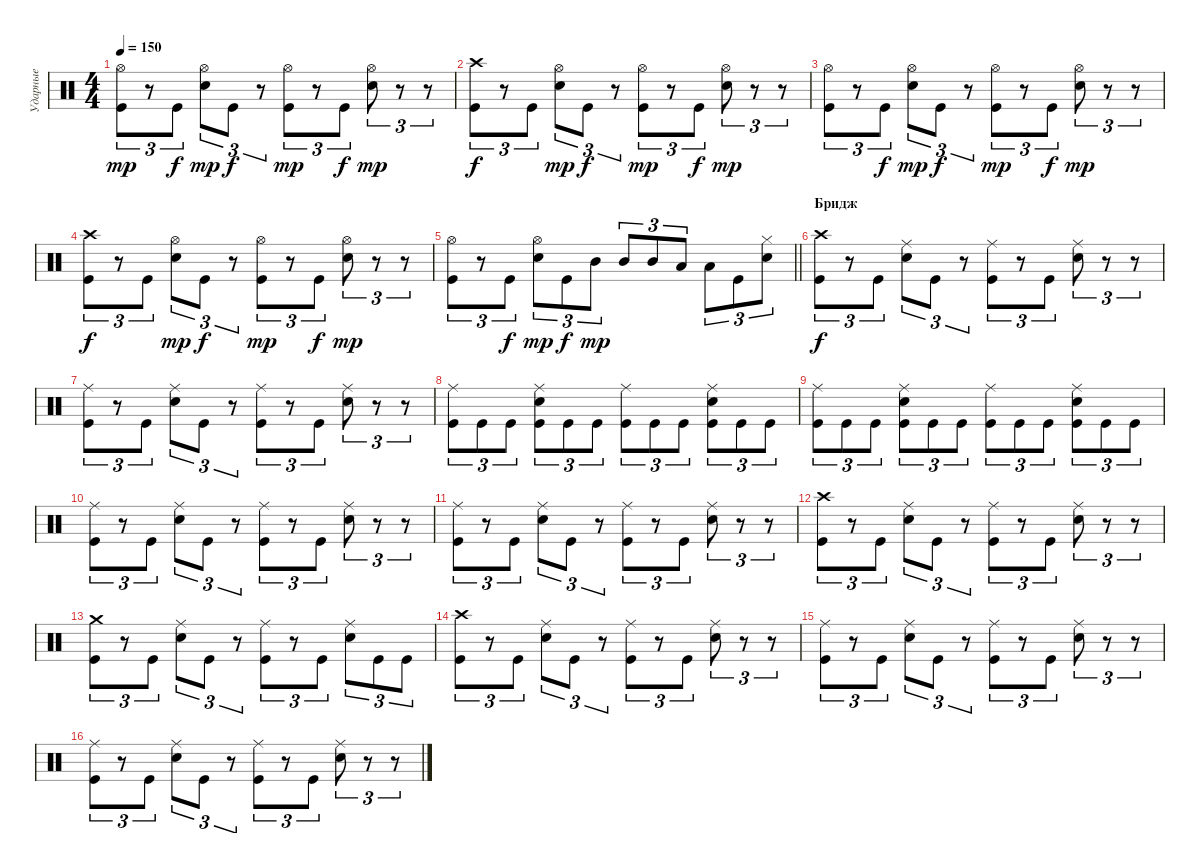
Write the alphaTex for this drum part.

\track ("Ударные" "Ударные") {instrument percussion}
\staff {score}
\articulation defaults
\ts (4 4)
\tempo 150
\clef neutral
\ks c
("Hi-Hat (open)" "Kick (hit)").8{tu (3 2) dy mp} r.8{tu (3 2)} "Kick (hit)".8{tu (3 2) dy f} ("Hi-Hat (open)" "Snare (hit) 2").8{tu (3 2) dy mp} "Kick (hit)".8{tu (3 2) dy f} r.8{tu (3 2)} ("Hi-Hat (open)" "Kick (hit)").8{tu (3 2) dy mp} r.8{tu (3 2)} "Kick (hit)".8{tu (3 2) dy f} ("Hi-Hat (open)" "Snare (hit) 2").8{tu (3 2) dy mp} r.8{tu (3 2)} r.8{tu (3 2)} |
("Crash high (hit)" "Kick (hit)").8{tu (3 2) dy f} r.8{tu (3 2)} "Kick (hit)".8{tu (3 2)} ("Hi-Hat (open)" "Snare (hit) 2").8{tu (3 2) dy mp} "Kick (hit)".8{tu (3 2) dy f} r.8{tu (3 2)} ("Hi-Hat (open)" "Kick (hit)").8{tu (3 2) dy mp} r.8{tu (3 2)} "Kick (hit)".8{tu (3 2) dy f} ("Hi-Hat (open)" "Snare (hit) 2").8{tu (3 2) dy mp} r.8{tu (3 2)} r.8{tu (3 2)} |
("Hi-Hat (open)" "Kick (hit)").8{tu (3 2)} r.8{tu (3 2)} "Kick (hit)".8{tu (3 2) dy f} ("Hi-Hat (open)" "Snare (hit) 2").8{tu (3 2) dy mp} "Kick (hit)".8{tu (3 2) dy f} r.8{tu (3 2)} ("Hi-Hat (open)" "Kick (hit)").8{tu (3 2) dy mp} r.8{tu (3 2)} "Kick (hit)".8{tu (3 2) dy f} ("Hi-Hat (open)" "Snare (hit) 2").8{tu (3 2) dy mp} r.8{tu (3 2)} r.8{tu (3 2)} |
("Crash high (hit)" "Kick (hit)").8{tu (3 2) dy f} r.8{tu (3 2)} "Kick (hit)".8{tu (3 2)} ("Hi-Hat (open)" "Snare (hit) 2").8{tu (3 2) dy mp} "Kick (hit)".8{tu (3 2) dy f} r.8{tu (3 2)} ("Hi-Hat (open)" "Kick (hit)").8{tu (3 2) dy mp} r.8{tu (3 2)} "Kick (hit)".8{tu (3 2) dy f} ("Hi-Hat (open)" "Snare (hit) 2").8{tu (3 2) dy mp} r.8{tu (3 2)} r.8{tu (3 2)} |
\barLineRight lightlight
("Hi-Hat (open)" "Kick (hit)").8{tu (3 2)} r.8{tu (3 2)} "Kick (hit)".8{tu (3 2) dy f} ("Hi-Hat (open)" "Snare (hit) 2").8{tu (3 2) dy mp} "Kick (hit)".8{tu (3 2) dy f} "Mid Tom (hit)".8{tu (3 2) dy mp} "Mid Tom (hit)".8{tu (3 2)} "Mid Tom (hit)".8{tu (3 2)} "Low Tom (hit)".8{tu (3 2)} "Low Tom (hit)".8{tu (3 2)} "Kick (hit)".8{tu (3 2)} ("Hi-Hat (closed)" "Snare (hit) 2").8{tu (3 2)} |
\section ("" "Бридж")
("Crash high (hit)" "Kick (hit)").8{tu (3 2) dy f} r.8{tu (3 2)} "Kick (hit)".8{tu (3 2)} ("Ride (middle)" "Snare (hit) 2").8{tu (3 2)} "Kick (hit)".8{tu (3 2)} r.8{tu (3 2)} ("Ride (middle)" "Kick (hit)").8{tu (3 2)} r.8{tu (3 2)} "Kick (hit)".8{tu (3 2)} ("Ride (middle)" "Snare (hit) 2").8{tu (3 2)} r.8{tu (3 2)} r.8{tu (3 2)} |
("Ride (middle)" "Kick (hit)").8{tu (3 2)} r.8{tu (3 2)} "Kick (hit)".8{tu (3 2)} ("Ride (middle)" "Snare (hit) 2").8{tu (3 2)} "Kick (hit)".8{tu (3 2)} r.8{tu (3 2)} ("Ride (middle)" "Kick (hit)").8{tu (3 2)} r.8{tu (3 2)} "Kick (hit)".8{tu (3 2)} ("Ride (middle)" "Snare (hit) 2").8{tu (3 2)} r.8{tu (3 2)} r.8{tu (3 2)} |
("Ride (middle)" "Kick (hit)").8{tu (3 2)} "Kick (hit)".8{tu (3 2)} "Kick (hit)".8{tu (3 2)} ("Ride (middle)" "Snare (hit) 2" "Kick (hit)").8{tu (3 2)} "Kick (hit)".8{tu (3 2)} "Kick (hit)".8{tu (3 2)} ("Ride (middle)" "Kick (hit)").8{tu (3 2)} "Kick (hit)".8{tu (3 2)} "Kick (hit)".8{tu (3 2)} ("Ride (middle)" "Snare (hit) 2" "Kick (hit)").8{tu (3 2)} "Kick (hit)".8{tu (3 2)} "Kick (hit)".8{tu (3 2)} |
("Ride (middle)" "Kick (hit)").8{tu (3 2)} "Kick (hit)".8{tu (3 2)} "Kick (hit)".8{tu (3 2)} ("Ride (middle)" "Snare (hit) 2" "Kick (hit)").8{tu (3 2)} "Kick (hit)".8{tu (3 2)} "Kick (hit)".8{tu (3 2)} ("Ride (middle)" "Kick (hit)").8{tu (3 2)} "Kick (hit)".8{tu (3 2)} "Kick (hit)".8{tu (3 2)} ("Ride (middle)" "Snare (hit) 2" "Kick (hit)").8{tu (3 2)} "Kick (hit)".8{tu (3 2)} "Kick (hit)".8{tu (3 2)} |
("Ride (middle)" "Kick (hit)").8{tu (3 2)} r.8{tu (3 2)} "Kick (hit)".8{tu (3 2)} ("Ride (middle)" "Snare (hit) 2").8{tu (3 2)} "Kick (hit)".8{tu (3 2)} r.8{tu (3 2)} ("Ride (middle)" "Kick (hit)").8{tu (3 2)} r.8{tu (3 2)} "Kick (hit)".8{tu (3 2)} ("Ride (middle)" "Snare (hit) 2").8{tu (3 2)} r.8{tu (3 2)} r.8{tu (3 2)} |
("Ride (middle)" "Kick (hit)").8{tu (3 2)} r.8{tu (3 2)} "Kick (hit)".8{tu (3 2)} ("Ride (middle)" "Snare (hit) 2").8{tu (3 2)} "Kick (hit)".8{tu (3 2)} r.8{tu (3 2)} ("Ride (middle)" "Kick (hit)").8{tu (3 2)} r.8{tu (3 2)} "Kick (hit)".8{tu (3 2)} ("Ride (middle)" "Snare (hit) 2").8{tu (3 2)} r.8{tu (3 2)} r.8{tu (3 2)} |
("Crash high (hit)" "Kick (hit)").8{tu (3 2)} r.8{tu (3 2)} "Kick (hit)".8{tu (3 2)} ("Ride (middle)" "Snare (hit) 2").8{tu (3 2)} "Kick (hit)".8{tu (3 2)} r.8{tu (3 2)} ("Ride (middle)" "Kick (hit)").8{tu (3 2)} r.8{tu (3 2)} "Kick (hit)".8{tu (3 2)} ("Ride (middle)" "Snare (hit) 2").8{tu (3 2)} r.8{tu (3 2)} r.8{tu (3 2)} |
("Crash medium (hit)" "Kick (hit)").8{tu (3 2)} r.8{tu (3 2)} "Kick (hit)".8{tu (3 2)} ("Ride (middle)" "Snare (hit) 2").8{tu (3 2)} "Kick (hit)".8{tu (3 2)} r.8{tu (3 2)} ("Ride (middle)" "Kick (hit)").8{tu (3 2)} r.8{tu (3 2)} "Kick (hit)".8{tu (3 2)} ("Ride (middle)" "Snare (hit) 2").8{tu (3 2)} "Kick (hit)".8{tu (3 2)} "Kick (hit)".8{tu (3 2)} |
("Crash high (hit)" "Kick (hit)").8{tu (3 2)} r.8{tu (3 2)} "Kick (hit)".8{tu (3 2)} ("Ride (middle)" "Snare (hit) 2").8{tu (3 2)} "Kick (hit)".8{tu (3 2)} r.8{tu (3 2)} ("Ride (middle)" "Kick (hit)").8{tu (3 2)} r.8{tu (3 2)} "Kick (hit)".8{tu (3 2)} ("Ride (middle)" "Snare (hit) 2").8{tu (3 2)} r.8{tu (3 2)} r.8{tu (3 2)} |
("Ride (middle)" "Kick (hit)").8{tu (3 2)} r.8{tu (3 2)} "Kick (hit)".8{tu (3 2)} ("Ride (middle)" "Snare (hit) 2").8{tu (3 2)} "Kick (hit)".8{tu (3 2)} r.8{tu (3 2)} ("Ride (middle)" "Kick (hit)").8{tu (3 2)} r.8{tu (3 2)} "Kick (hit)".8{tu (3 2)} ("Ride (middle)" "Snare (hit) 2").8{tu (3 2)} r.8{tu (3 2)} r.8{tu (3 2)} |
("Ride (middle)" "Kick (hit)").8{tu (3 2)} r.8{tu (3 2)} "Kick (hit)".8{tu (3 2)} ("Ride (middle)" "Snare (hit) 2").8{tu (3 2)} "Kick (hit)".8{tu (3 2)} r.8{tu (3 2)} ("Ride (middle)" "Kick (hit)").8{tu (3 2)} r.8{tu (3 2)} "Kick (hit)".8{tu (3 2)} ("Ride (middle)" "Snare (hit) 2").8{tu (3 2)} r.8{tu (3 2)} r.8{tu (3 2)}
